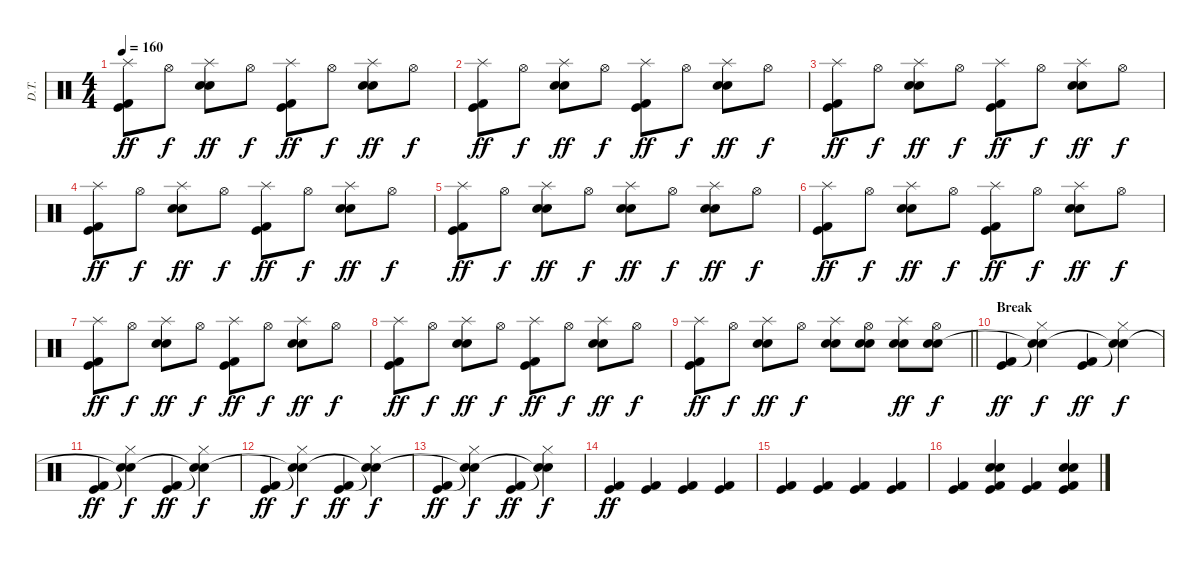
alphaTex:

\track ("D.T." "D.T.") {instrument percussion}
\staff {score}
\articulation defaults
\ts (4 4)
\tempo 160
\clef neutral
\ks c
("Splash (hit)" "Kick (hit)" "Kick (hit) 2").8{dy ff} "Hi-Hat (open)".8{dy f} ("Splash (hit)" "Snare (hit) 2" "Electric Snare (hit)").8{dy ff} "Hi-Hat (open)".8{dy f} ("Splash (hit)" "Kick (hit)" "Kick (hit) 2").8{dy ff} "Hi-Hat (open)".8{dy f} ("Splash (hit)" "Snare (hit) 2" "Electric Snare (hit)").8{dy ff} "Hi-Hat (open)".8{dy f} |
("Splash (hit)" "Kick (hit)" "Kick (hit) 2").8{dy ff} "Hi-Hat (open)".8{dy f} ("Splash (hit)" "Snare (hit) 2" "Electric Snare (hit)").8{dy ff} "Hi-Hat (open)".8{dy f} ("Splash (hit)" "Kick (hit)" "Kick (hit) 2").8{dy ff} "Hi-Hat (open)".8{dy f} ("Splash (hit)" "Snare (hit) 2" "Electric Snare (hit)").8{dy ff} "Hi-Hat (open)".8{dy f} |
("Splash (hit)" "Kick (hit)" "Kick (hit) 2").8{dy ff} "Hi-Hat (open)".8{dy f} ("Splash (hit)" "Snare (hit) 2" "Electric Snare (hit)").8{dy ff} "Hi-Hat (open)".8{dy f} ("Splash (hit)" "Kick (hit)" "Kick (hit) 2").8{dy ff} "Hi-Hat (open)".8{dy f} ("Splash (hit)" "Snare (hit) 2" "Electric Snare (hit)").8{dy ff} "Hi-Hat (open)".8{dy f} |
("Splash (hit)" "Kick (hit)" "Kick (hit) 2").8{dy ff} "Hi-Hat (open)".8{dy f} ("Splash (hit)" "Snare (hit) 2" "Electric Snare (hit)").8{dy ff} "Hi-Hat (open)".8{dy f} ("Splash (hit)" "Kick (hit)" "Kick (hit) 2").8{dy ff} "Hi-Hat (open)".8{dy f} ("Splash (hit)" "Snare (hit) 2" "Electric Snare (hit)").8{dy ff} "Hi-Hat (open)".8{dy f} |
("Splash (hit)" "Kick (hit)" "Kick (hit) 2").8{dy ff} "Hi-Hat (open)".8{dy f} ("Splash (hit)" "Snare (hit) 2" "Electric Snare (hit)").8{dy ff} "Hi-Hat (open)".8{dy f} ("Splash (hit)" "Snare (hit) 2" "Electric Snare (hit)").8{dy ff} "Hi-Hat (open)".8{dy f} ("Splash (hit)" "Snare (hit) 2" "Electric Snare (hit)").8{dy ff} "Hi-Hat (open)".8{dy f} |
("Splash (hit)" "Kick (hit)" "Kick (hit) 2").8{dy ff} "Hi-Hat (open)".8{dy f} ("Splash (hit)" "Snare (hit) 2" "Electric Snare (hit)").8{dy ff} "Hi-Hat (open)".8{dy f} ("Splash (hit)" "Kick (hit)" "Kick (hit) 2").8{dy ff} "Hi-Hat (open)".8{dy f} ("Splash (hit)" "Snare (hit) 2" "Electric Snare (hit)").8{dy ff} "Hi-Hat (open)".8{dy f} |
("Splash (hit)" "Kick (hit)" "Kick (hit) 2").8{dy ff} "Hi-Hat (open)".8{dy f} ("Splash (hit)" "Snare (hit) 2" "Electric Snare (hit)").8{dy ff} "Hi-Hat (open)".8{dy f} ("Splash (hit)" "Kick (hit)" "Kick (hit) 2").8{dy ff} "Hi-Hat (open)".8{dy f} ("Splash (hit)" "Snare (hit) 2" "Electric Snare (hit)").8{dy ff} "Hi-Hat (open)".8{dy f} |
("Splash (hit)" "Kick (hit)" "Kick (hit) 2").8{dy ff} "Hi-Hat (open)".8{dy f} ("Splash (hit)" "Snare (hit) 2" "Electric Snare (hit)").8{dy ff} "Hi-Hat (open)".8{dy f} ("Splash (hit)" "Kick (hit)" "Kick (hit) 2").8{dy ff} "Hi-Hat (open)".8{dy f} ("Splash (hit)" "Snare (hit) 2" "Electric Snare (hit)").8{dy ff} "Hi-Hat (open)".8{dy f} |
\barLineRight lightlight
("Splash (hit)" "Kick (hit)" "Kick (hit) 2").8{dy ff} "Hi-Hat (open)".8{dy f} ("Splash (hit)" "Snare (hit) 2" "Electric Snare (hit)").8{dy ff} "Hi-Hat (open)".8{dy f} ("Splash (hit)" "Snare (hit) 2" "Electric Snare (hit)").8 ("Hi-Hat (open)" "Snare (hit) 2" "Electric Snare (hit)").8 ("Splash (hit)" "Snare (hit) 2" "Electric Snare (hit)").8{dy ff} ("Hi-Hat (open)" "Snare (hit) 2" "Electric Snare (hit)").8{dy f} |
\section ("" "Break")
("Kick (hit)" "Kick (hit) 2").4{dy ff} ("Hi-Hat (closed)" "Snare (hit)"{t} "Snare (hit)"{t}).4{dy f} ("Kick (hit)" "Kick (hit) 2").4{dy ff} ("Hi-Hat (closed)" "Snare (hit)"{t} "Snare (hit)"{t}).4{dy f} |
("Kick (hit)" "Kick (hit) 2").4{dy ff} ("Hi-Hat (closed)" "Snare (hit)"{t} "Snare (hit)"{t}).4{dy f} ("Kick (hit)" "Kick (hit) 2").4{dy ff} ("Hi-Hat (closed)" "Snare (hit)"{t} "Snare (hit)"{t}).4{dy f} |
("Kick (hit)" "Kick (hit) 2").4{dy ff} ("Hi-Hat (closed)" "Snare (hit)"{t} "Snare (hit)"{t}).4{dy f} ("Kick (hit)" "Kick (hit) 2").4{dy ff} ("Hi-Hat (closed)" "Snare (hit)"{t} "Snare (hit)"{t}).4{dy f} |
("Kick (hit)" "Kick (hit) 2").4{dy ff} ("Hi-Hat (closed)" "Snare (hit)"{t} "Snare (hit)"{t}).4{dy f} ("Kick (hit)" "Kick (hit) 2").4{dy ff} ("Hi-Hat (closed)" "Snare (hit)"{t} "Snare (hit)"{t}).4{dy f} |
("Kick (hit)" "Kick (hit) 2").4{dy ff} ("Kick (hit)" "Kick (hit) 2").4 ("Kick (hit)" "Kick (hit) 2").4 ("Kick (hit)" "Kick (hit) 2").4 |
("Kick (hit)" "Kick (hit) 2").4 ("Kick (hit)" "Kick (hit) 2").4 ("Kick (hit)" "Kick (hit) 2").4 ("Kick (hit)" "Kick (hit) 2").4 |
("Kick (hit)" "Kick (hit) 2").4 ("Snare (hit) 2" "Electric Snare (hit)" "Kick (hit)" "Kick (hit) 2").4 ("Kick (hit)" "Kick (hit) 2").4 ("Snare (hit) 2" "Electric Snare (hit)" "Kick (hit)" "Kick (hit) 2").4
